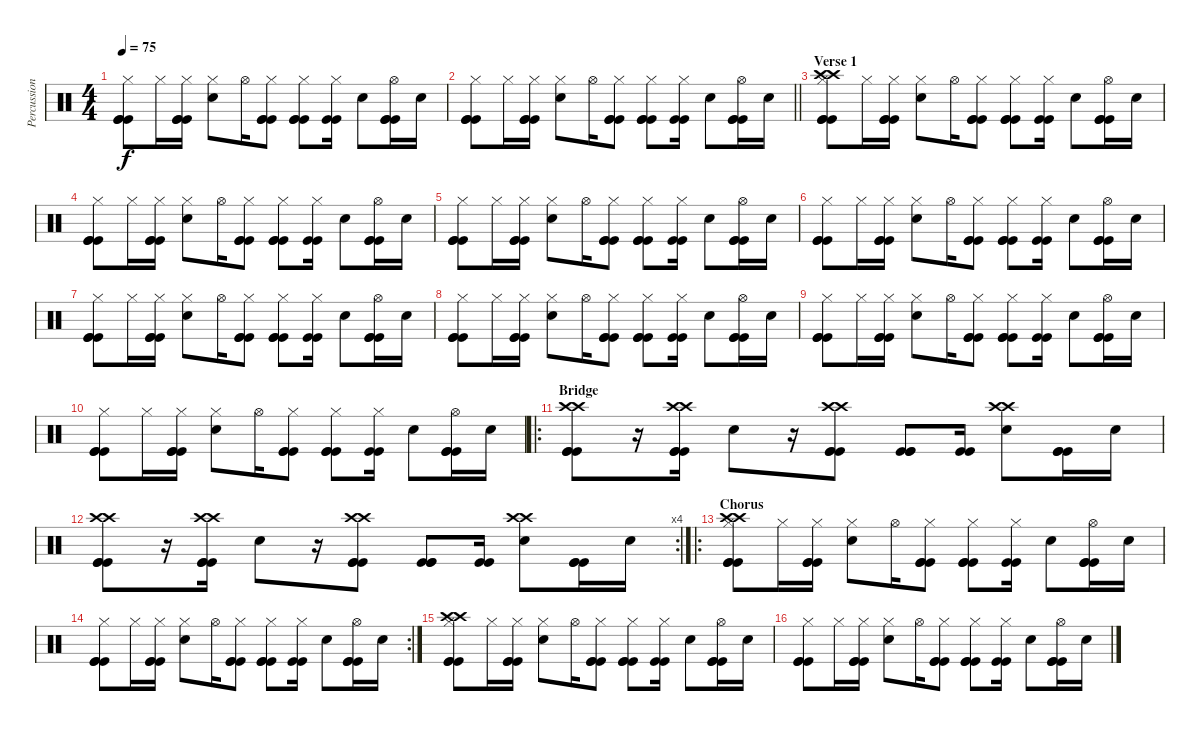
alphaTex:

\track ("Percussion" "Percussion") {instrument percussion}
\staff {score}
\articulation defaults
\ts (4 4)
\tempo 75
\clef neutral
\ks c
("Kick (hit)" "Kick (hit)" "Kick (hit)" "Hi-Hat (closed)").8{dy f} "Hi-Hat (closed)".16 ("Kick (hit)" "Kick (hit)" "Kick (hit)" "Hi-Hat (closed)").16 ("Electric Snare (hit)" "Hi-Hat (closed)").8 "Hi-Hat (open)".16 ("Kick (hit)" "Kick (hit)" "Kick (hit)" "Hi-Hat (closed)").8 ("Kick (hit)" "Kick (hit)" "Kick (hit)" "Hi-Hat (closed)").8 ("Kick (hit)" "Kick (hit)" "Hi-Hat (closed)").16 "Electric Snare (hit)".8 ("Kick (hit)" "Kick (hit)" "Kick (hit)" "Hi-Hat (open)").16 "Electric Snare (hit)".16 |
\barLineRight lightlight
("Kick (hit)" "Kick (hit)" "Kick (hit)" "Hi-Hat (closed)").8 "Hi-Hat (closed)".16 ("Kick (hit)" "Kick (hit)" "Kick (hit)" "Hi-Hat (closed)").16 ("Electric Snare (hit)" "Hi-Hat (closed)").8 "Hi-Hat (open)".16 ("Kick (hit)" "Kick (hit)" "Kick (hit)" "Hi-Hat (closed)").8 ("Kick (hit)" "Kick (hit)" "Kick (hit)" "Hi-Hat (closed)").8 ("Kick (hit)" "Kick (hit)" "Hi-Hat (closed)").16 "Electric Snare (hit)".8 ("Kick (hit)" "Kick (hit)" "Kick (hit)" "Hi-Hat (open)").16 "Electric Snare (hit)".16 |
\section ("" "Verse 1")
("Kick (hit)" "Kick (hit)" "Kick (hit)" "Hi-Hat (closed)" "Crash high (hit)" "Crash high (hit)").8 "Hi-Hat (closed)".16 ("Kick (hit)" "Kick (hit)" "Kick (hit)" "Hi-Hat (closed)").16 ("Electric Snare (hit)" "Hi-Hat (closed)").8 "Hi-Hat (open)".16 ("Kick (hit)" "Kick (hit)" "Kick (hit)" "Hi-Hat (closed)").8 ("Kick (hit)" "Kick (hit)" "Kick (hit)" "Hi-Hat (closed)").8 ("Kick (hit)" "Kick (hit)" "Hi-Hat (closed)").16 "Electric Snare (hit)".8 ("Kick (hit)" "Kick (hit)" "Kick (hit)" "Hi-Hat (open)").16 "Electric Snare (hit)".16 |
("Kick (hit)" "Kick (hit)" "Kick (hit)" "Hi-Hat (closed)").8 "Hi-Hat (closed)".16 ("Kick (hit)" "Kick (hit)" "Kick (hit)" "Hi-Hat (closed)").16 ("Electric Snare (hit)" "Hi-Hat (closed)").8 "Hi-Hat (open)".16 ("Kick (hit)" "Kick (hit)" "Kick (hit)" "Hi-Hat (closed)").8 ("Kick (hit)" "Kick (hit)" "Kick (hit)" "Hi-Hat (closed)").8 ("Kick (hit)" "Kick (hit)" "Hi-Hat (closed)").16 "Electric Snare (hit)".8 ("Kick (hit)" "Kick (hit)" "Kick (hit)" "Hi-Hat (open)").16 "Electric Snare (hit)".16 |
("Kick (hit)" "Kick (hit)" "Kick (hit)" "Hi-Hat (closed)").8 "Hi-Hat (closed)".16 ("Kick (hit)" "Kick (hit)" "Kick (hit)" "Hi-Hat (closed)").16 ("Electric Snare (hit)" "Hi-Hat (closed)").8 "Hi-Hat (open)".16 ("Kick (hit)" "Kick (hit)" "Kick (hit)" "Hi-Hat (closed)").8 ("Kick (hit)" "Kick (hit)" "Kick (hit)" "Hi-Hat (closed)").8 ("Kick (hit)" "Kick (hit)" "Hi-Hat (closed)").16 "Electric Snare (hit)".8 ("Kick (hit)" "Kick (hit)" "Kick (hit)" "Hi-Hat (open)").16 "Electric Snare (hit)".16 |
("Kick (hit)" "Kick (hit)" "Kick (hit)" "Hi-Hat (closed)").8 "Hi-Hat (closed)".16 ("Kick (hit)" "Kick (hit)" "Kick (hit)" "Hi-Hat (closed)").16 ("Electric Snare (hit)" "Hi-Hat (closed)").8 "Hi-Hat (open)".16 ("Kick (hit)" "Kick (hit)" "Kick (hit)" "Hi-Hat (closed)").8 ("Kick (hit)" "Kick (hit)" "Kick (hit)" "Hi-Hat (closed)").8 ("Kick (hit)" "Kick (hit)" "Hi-Hat (closed)").16 "Electric Snare (hit)".8 ("Kick (hit)" "Kick (hit)" "Kick (hit)" "Hi-Hat (open)").16 "Electric Snare (hit)".16 |
("Kick (hit)" "Kick (hit)" "Kick (hit)" "Hi-Hat (closed)").8 "Hi-Hat (closed)".16 ("Kick (hit)" "Kick (hit)" "Kick (hit)" "Hi-Hat (closed)").16 ("Electric Snare (hit)" "Hi-Hat (closed)").8 "Hi-Hat (open)".16 ("Kick (hit)" "Kick (hit)" "Kick (hit)" "Hi-Hat (closed)").8 ("Kick (hit)" "Kick (hit)" "Kick (hit)" "Hi-Hat (closed)").8 ("Kick (hit)" "Kick (hit)" "Hi-Hat (closed)").16 "Electric Snare (hit)".8 ("Kick (hit)" "Kick (hit)" "Kick (hit)" "Hi-Hat (open)").16 "Electric Snare (hit)".16 |
("Kick (hit)" "Kick (hit)" "Kick (hit)" "Hi-Hat (closed)").8 "Hi-Hat (closed)".16 ("Kick (hit)" "Kick (hit)" "Kick (hit)" "Hi-Hat (closed)").16 ("Electric Snare (hit)" "Hi-Hat (closed)").8 "Hi-Hat (open)".16 ("Kick (hit)" "Kick (hit)" "Kick (hit)" "Hi-Hat (closed)").8 ("Kick (hit)" "Kick (hit)" "Kick (hit)" "Hi-Hat (closed)").8 ("Kick (hit)" "Kick (hit)" "Hi-Hat (closed)").16 "Electric Snare (hit)".8 ("Kick (hit)" "Kick (hit)" "Kick (hit)" "Hi-Hat (open)").16 "Electric Snare (hit)".16 |
("Kick (hit)" "Kick (hit)" "Kick (hit)" "Hi-Hat (closed)").8 "Hi-Hat (closed)".16 ("Kick (hit)" "Kick (hit)" "Kick (hit)" "Hi-Hat (closed)").16 ("Electric Snare (hit)" "Hi-Hat (closed)").8 "Hi-Hat (open)".16 ("Kick (hit)" "Kick (hit)" "Kick (hit)" "Hi-Hat (closed)").8 ("Kick (hit)" "Kick (hit)" "Kick (hit)" "Hi-Hat (closed)").8 ("Kick (hit)" "Kick (hit)" "Hi-Hat (closed)").16 "Electric Snare (hit)".8 ("Kick (hit)" "Kick (hit)" "Kick (hit)" "Hi-Hat (open)").16 "Electric Snare (hit)".16 |
("Kick (hit)" "Kick (hit)" "Kick (hit)" "Hi-Hat (closed)").8 "Hi-Hat (closed)".16 ("Kick (hit)" "Kick (hit)" "Kick (hit)" "Hi-Hat (closed)").16 ("Electric Snare (hit)" "Hi-Hat (closed)").8 "Hi-Hat (open)".16 ("Kick (hit)" "Kick (hit)" "Kick (hit)" "Hi-Hat (closed)").8 ("Kick (hit)" "Kick (hit)" "Kick (hit)" "Hi-Hat (closed)").8 ("Kick (hit)" "Kick (hit)" "Hi-Hat (closed)").16 "Electric Snare (hit)".8 ("Kick (hit)" "Kick (hit)" "Kick (hit)" "Hi-Hat (open)").16 "Electric Snare (hit)".16 |
\ro
\section ("" "Bridge")
("Kick (hit)" "Kick (hit)" "Kick (hit)" "Crash high (hit)" "Crash high (hit)").8 r.16 ("Kick (hit)" "Kick (hit)" "Kick (hit)" "Crash high (hit)" "Crash high (hit)").16 "Electric Snare (hit)".8 r.16 ("Kick (hit)" "Kick (hit)" "Kick (hit)" "Crash high (hit)" "Crash high (hit)").8 ("Kick (hit)" "Kick (hit)" "Kick (hit)").8 ("Kick (hit)" "Kick (hit)").16 ("Electric Snare (hit)" "Crash high (hit)" "Crash high (hit)").8 ("Kick (hit)" "Kick (hit)" "Kick (hit)").16 "Electric Snare (hit)".16 |
\rc 4
("Kick (hit)" "Kick (hit)" "Kick (hit)" "Crash high (hit)" "Crash high (hit)").8 r.16 ("Kick (hit)" "Kick (hit)" "Kick (hit)" "Crash high (hit)" "Crash high (hit)").16 "Electric Snare (hit)".8 r.16 ("Kick (hit)" "Kick (hit)" "Kick (hit)" "Crash high (hit)" "Crash high (hit)").8 ("Kick (hit)" "Kick (hit)" "Kick (hit)").8 ("Kick (hit)" "Kick (hit)").16 ("Electric Snare (hit)" "Crash high (hit)" "Crash high (hit)").8 ("Kick (hit)" "Kick (hit)" "Kick (hit)").16 "Electric Snare (hit)".16 |
\ro
\section ("" "Chorus")
("Kick (hit)" "Kick (hit)" "Kick (hit)" "Hi-Hat (closed)" "Crash high (hit)" "Crash high (hit)").8 "Hi-Hat (closed)".16 ("Kick (hit)" "Kick (hit)" "Kick (hit)" "Hi-Hat (closed)").16 ("Electric Snare (hit)" "Hi-Hat (closed)").8 "Hi-Hat (open)".16 ("Kick (hit)" "Kick (hit)" "Kick (hit)" "Hi-Hat (closed)").8 ("Kick (hit)" "Kick (hit)" "Kick (hit)" "Hi-Hat (closed)").8 ("Kick (hit)" "Kick (hit)" "Hi-Hat (closed)").16 "Electric Snare (hit)".8 ("Kick (hit)" "Kick (hit)" "Kick (hit)" "Hi-Hat (open)").16 "Electric Snare (hit)".16 |
\rc 2
("Kick (hit)" "Kick (hit)" "Kick (hit)" "Hi-Hat (closed)").8 "Hi-Hat (closed)".16 ("Kick (hit)" "Kick (hit)" "Kick (hit)" "Hi-Hat (closed)").16 ("Electric Snare (hit)" "Hi-Hat (closed)").8 "Hi-Hat (open)".16 ("Kick (hit)" "Kick (hit)" "Kick (hit)" "Hi-Hat (closed)").8 ("Kick (hit)" "Kick (hit)" "Kick (hit)" "Hi-Hat (closed)").8 ("Kick (hit)" "Kick (hit)" "Hi-Hat (closed)").16 "Electric Snare (hit)".8 ("Kick (hit)" "Kick (hit)" "Kick (hit)" "Hi-Hat (open)").16 "Electric Snare (hit)".16 |
("Kick (hit)" "Kick (hit)" "Kick (hit)" "Hi-Hat (closed)" "Crash high (hit)" "Crash high (hit)").8 "Hi-Hat (closed)".16 ("Kick (hit)" "Kick (hit)" "Kick (hit)" "Hi-Hat (closed)").16 ("Electric Snare (hit)" "Hi-Hat (closed)").8 "Hi-Hat (open)".16 ("Kick (hit)" "Kick (hit)" "Kick (hit)" "Hi-Hat (closed)").8 ("Kick (hit)" "Kick (hit)" "Kick (hit)" "Hi-Hat (closed)").8 ("Kick (hit)" "Kick (hit)" "Hi-Hat (closed)").16 "Electric Snare (hit)".8 ("Kick (hit)" "Kick (hit)" "Kick (hit)" "Hi-Hat (open)").16 "Electric Snare (hit)".16 |
("Kick (hit)" "Kick (hit)" "Kick (hit)" "Hi-Hat (closed)").8 "Hi-Hat (closed)".16 ("Kick (hit)" "Kick (hit)" "Kick (hit)" "Hi-Hat (closed)").16 ("Electric Snare (hit)" "Hi-Hat (closed)").8 "Hi-Hat (open)".16 ("Kick (hit)" "Kick (hit)" "Kick (hit)" "Hi-Hat (closed)").8 ("Kick (hit)" "Kick (hit)" "Kick (hit)" "Hi-Hat (closed)").8 ("Kick (hit)" "Kick (hit)" "Hi-Hat (closed)").16 "Electric Snare (hit)".8 ("Kick (hit)" "Kick (hit)" "Kick (hit)" "Hi-Hat (open)").16 "Electric Snare (hit)".16
